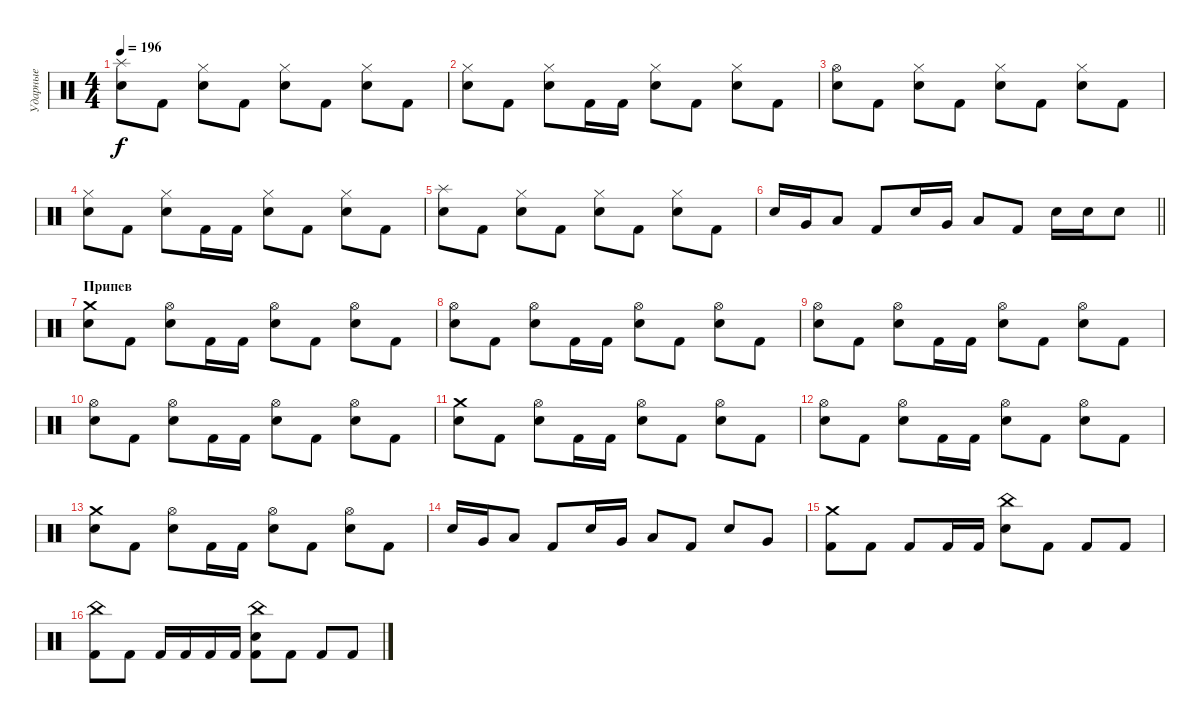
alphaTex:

\track ("Ударные" "Ударные") {instrument percussion}
\staff {score}
\articulation defaults
\ts (4 4)
\tempo 196
\clef neutral
\ks c
("Splash (hit)" "Snare (hit) 2").8{dy f} "Kick (hit) 2".8 ("Hi-Hat (closed)" "Snare (hit) 2").8 "Kick (hit) 2".8 ("Hi-Hat (closed)" "Snare (hit) 2").8 "Kick (hit) 2".8 ("Hi-Hat (closed)" "Snare (hit) 2").8 "Kick (hit) 2".8 |
("Hi-Hat (closed)" "Snare (hit) 2").8 "Kick (hit) 2".8 ("Hi-Hat (closed)" "Snare (hit) 2").8 "Kick (hit) 2".16 "Kick (hit) 2".16 ("Hi-Hat (closed)" "Snare (hit) 2").8 "Kick (hit) 2".8 ("Hi-Hat (closed)" "Snare (hit) 2").8 "Kick (hit) 2".8 |
("Hi-Hat (open)" "Snare (hit) 2").8 "Kick (hit) 2".8 ("Hi-Hat (closed)" "Snare (hit) 2").8 "Kick (hit) 2".8 ("Hi-Hat (closed)" "Snare (hit) 2").8 "Kick (hit) 2".8 ("Hi-Hat (closed)" "Snare (hit) 2").8 "Kick (hit) 2".8 |
("Hi-Hat (closed)" "Snare (hit) 2").8 "Kick (hit) 2".8 ("Hi-Hat (closed)" "Snare (hit) 2").8 "Kick (hit) 2".16 "Kick (hit) 2".16 ("Hi-Hat (closed)" "Snare (hit) 2").8 "Kick (hit) 2".8 ("Hi-Hat (closed)" "Snare (hit) 2").8 "Kick (hit) 2".8 |
("Splash (hit)" "Snare (hit) 2").8 "Kick (hit) 2".8 ("Hi-Hat (closed)" "Snare (hit) 2").8 "Kick (hit) 2".8 ("Hi-Hat (closed)" "Snare (hit) 2").8 "Kick (hit) 2".8 ("Hi-Hat (closed)" "Snare (hit) 2").8 "Kick (hit) 2".8 |
\barLineRight lightlight "Snare (hit) 2".16 "Very Low Tom (hit)".16 "Low Tom (hit)".8 "Kick (hit) 2".8 "Snare (hit) 2".16 "Very Low Tom (hit)".16 "Low Tom (hit)".8 "Kick (hit) 2".8 "Snare (hit) 2".16 "Snare (hit) 2".16 "Snare (hit) 2".8
|
\section ("" "Припев")
("Crash medium (hit)" "Snare (hit) 2").8 "Kick (hit) 2".8 ("Hi-Hat (open)" "Snare (hit) 2").8 "Kick (hit) 2".16 "Kick (hit) 2".16 ("Hi-Hat (open)" "Snare (hit) 2").8 "Kick (hit) 2".8 ("Hi-Hat (open)" "Snare (hit) 2").8 "Kick (hit) 2".8 |
("Hi-Hat (open)" "Snare (hit) 2").8 "Kick (hit) 2".8 ("Hi-Hat (open)" "Snare (hit) 2").8 "Kick (hit) 2".16 "Kick (hit) 2".16 ("Hi-Hat (open)" "Snare (hit) 2").8 "Kick (hit) 2".8 ("Hi-Hat (open)" "Snare (hit) 2").8 "Kick (hit) 2".8 |
("Hi-Hat (open)" "Snare (hit) 2").8 "Kick (hit) 2".8 ("Hi-Hat (open)" "Snare (hit) 2").8 "Kick (hit) 2".16 "Kick (hit) 2".16 ("Hi-Hat (open)" "Snare (hit) 2").8 "Kick (hit) 2".8 ("Hi-Hat (open)" "Snare (hit) 2").8 "Kick (hit) 2".8 |
("Hi-Hat (open)" "Snare (hit) 2").8 "Kick (hit) 2".8 ("Hi-Hat (open)" "Snare (hit) 2").8 "Kick (hit) 2".16 "Kick (hit) 2".16 ("Hi-Hat (open)" "Snare (hit) 2").8 "Kick (hit) 2".8 ("Hi-Hat (open)" "Snare (hit) 2").8 "Kick (hit) 2".8 |
("Crash medium (hit)" "Snare (hit) 2").8 "Kick (hit) 2".8 ("Hi-Hat (open)" "Snare (hit) 2").8 "Kick (hit) 2".16 "Kick (hit) 2".16 ("Hi-Hat (open)" "Snare (hit) 2").8 "Kick (hit) 2".8 ("Hi-Hat (open)" "Snare (hit) 2").8 "Kick (hit) 2".8 |
("Hi-Hat (open)" "Snare (hit) 2").8 "Kick (hit) 2".8 ("Hi-Hat (open)" "Snare (hit) 2").8 "Kick (hit) 2".16 "Kick (hit) 2".16 ("Hi-Hat (open)" "Snare (hit) 2").8 "Kick (hit) 2".8 ("Hi-Hat (open)" "Snare (hit) 2").8 "Kick (hit) 2".8 |
("Crash medium (hit)" "Snare (hit) 2").8 "Kick (hit) 2".8 ("Hi-Hat (open)" "Snare (hit) 2").8 "Kick (hit) 2".16 "Kick (hit) 2".16 ("Hi-Hat (open)" "Snare (hit) 2").8 "Kick (hit) 2".8 ("Hi-Hat (open)" "Snare (hit) 2").8 "Kick (hit) 2".8 |
"Snare (hit) 2".16 "Very Low Tom (hit)".16 "Low Tom (hit)".8 "Kick (hit) 2".8 "Snare (hit) 2".16 "Very Low Tom (hit)".16 "Low Tom (hit)".8 "Kick (hit) 2".8 "Snare (hit) 2".8 "Very Low Tom (hit)".8 |
("Crash medium (hit)" "Kick (hit) 2").8 "Kick (hit) 2".8 "Kick (hit) 2".8 "Kick (hit) 2".16 "Kick (hit) 2".16 ("China (hit)" "Snare (hit) 2").8 "Kick (hit) 2".8 "Kick (hit) 2".8 "Kick (hit) 2".8 |
("China (hit)" "Kick (hit) 2").8 "Kick (hit) 2".8 "Kick (hit) 2".16 "Kick (hit) 2".16 "Kick (hit) 2".16 "Kick (hit) 2".16 ("China (hit)" "Snare (hit) 2" "Kick (hit) 2").8 "Kick (hit) 2".8 "Kick (hit) 2".8 "Kick (hit) 2".8
